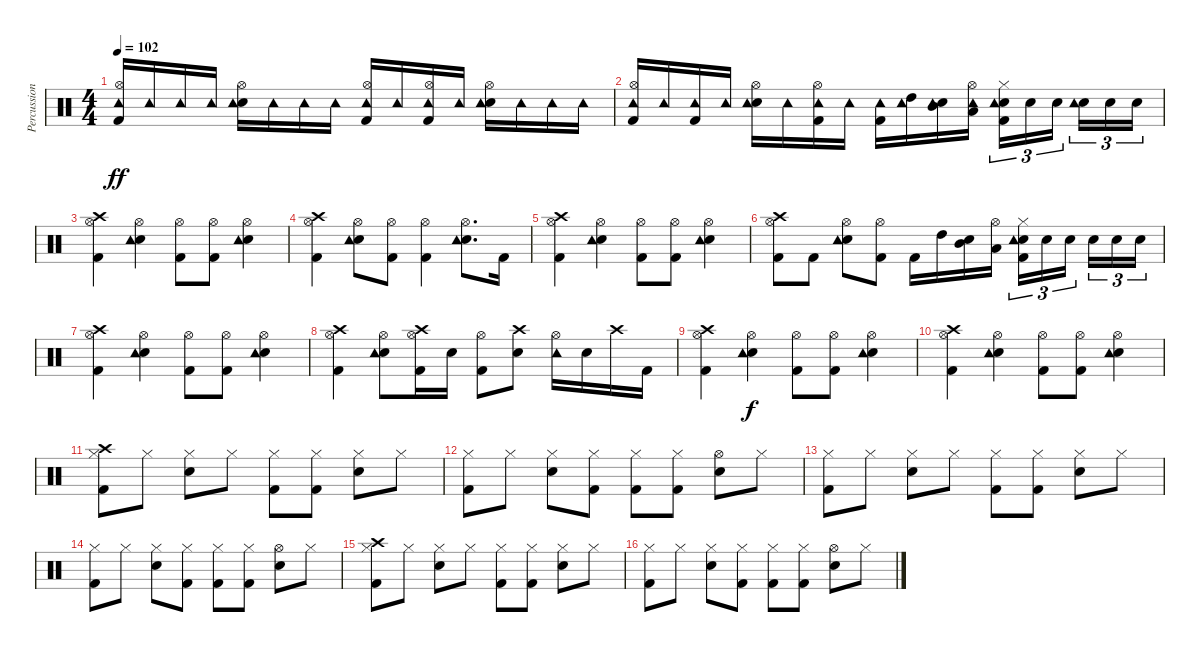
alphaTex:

\track ("Percussions" "Percussion") {instrument percussion}
\staff {score}
\articulation defaults
\ts (4 4)
\tempo 102
\clef neutral
\ks c
("Kick (hit) 2" "Hi-Hat (open)" "Tambourine (hit)").16{dy ff} "Tambourine (hit)".16 "Tambourine (hit)".16 "Tambourine (hit)".16 ("Snare (hit) 2" "Hi-Hat (open)" "Tambourine (hit)").16 "Tambourine (hit)".16 "Tambourine (hit)".16 "Tambourine (hit)".16 ("Kick (hit) 2" "Hi-Hat (open)" "Tambourine (hit)").16 "Tambourine (hit)".16 ("Kick (hit) 2" "Hi-Hat (open)" "Tambourine (hit)").16 "Tambourine (hit)".16 ("Snare (hit) 2" "Hi-Hat (open)" "Tambourine (hit)").16 "Tambourine (hit)".16 "Tambourine (hit)".16 "Tambourine (hit)".16 |
("Kick (hit) 2" "Hi-Hat (open)" "Tambourine (hit)").16 "Tambourine (hit)".16 ("Kick (hit) 2" "Tambourine (hit)").16 "Tambourine (hit)".16 ("Snare (hit) 2" "Hi-Hat (open)" "Tambourine (hit)").16 "Tambourine (hit)".16 ("Kick (hit) 2" "Hi-Hat (open)" "Tambourine (hit)").16 "Tambourine (hit)".16 ("Kick (hit) 2" "Tambourine (hit)").16 ("High Tom (hit)" "Tambourine (hit)").16 ("Snare (hit) 2" "Mid Tom (hit)" "Tambourine (hit)").16 ("Low Tom (hit)" "Hi-Hat (open)" "Tambourine (hit)").16 ("Kick (hit) 2" "Snare (hit) 2" "Hi-Hat (closed)" "Tambourine (hit)").16{tu (3 2)} "Snare (hit) 2".16{tu (3 2)} "Snare (hit) 2".16{tu (3 2) beam splitsecondary} ("Snare (hit) 2" "Tambourine (hit)").16{tu (3 2)} "Snare (hit) 2".16{tu (3 2)} "Snare (hit) 2".16{tu (3 2)} |
("Kick (hit) 2" "Hi-Hat (open)" "Crash high (hit)").4 ("Snare (hit) 2" "Hi-Hat (open)" "Tambourine (hit)").4 ("Kick (hit) 2" "Hi-Hat (open)").8 ("Kick (hit) 2" "Hi-Hat (open)").8 ("Snare (hit) 2" "Hi-Hat (open)" "Tambourine (hit)").4 |
("Kick (hit) 2" "Hi-Hat (open)" "Crash high (hit)").4 ("Snare (hit) 2" "Hi-Hat (open)" "Tambourine (hit)").8 ("Kick (hit) 2" "Hi-Hat (open)").8 ("Kick (hit) 2" "Hi-Hat (open)").4 ("Snare (hit) 2" "Hi-Hat (open)" "Tambourine (hit)").8{d} "Kick (hit) 2".16 |
("Kick (hit) 2" "Hi-Hat (open)" "Crash high (hit)").4 ("Snare (hit) 2" "Hi-Hat (open)" "Tambourine (hit)").4 ("Kick (hit) 2" "Hi-Hat (open)").8 ("Kick (hit) 2" "Hi-Hat (open)").8 ("Snare (hit) 2" "Hi-Hat (open)" "Tambourine (hit)").4 |
("Kick (hit) 2" "Hi-Hat (open)" "Crash high (hit)").8 "Kick (hit) 2".8 ("Snare (hit) 2" "Hi-Hat (open)" "Tambourine (hit)").8 ("Kick (hit) 2" "Hi-Hat (open)").8 "Kick (hit) 2".16 "High Tom (hit)".16 ("Snare (hit) 2" "Mid Tom (hit)").16 ("Low Tom (hit)" "Hi-Hat (open)").16 ("Kick (hit) 2" "Snare (hit) 2" "Hi-Hat (closed)" "Tambourine (hit)").16{tu (3 2)} "Snare (hit) 2".16{tu (3 2)} "Snare (hit) 2".16{tu (3 2) beam splitsecondary} "Snare (hit) 2".16{tu (3 2)} "Snare (hit) 2".16{tu (3 2)} "Snare (hit) 2".16{tu (3 2)} |
("Kick (hit) 2" "Hi-Hat (open)" "Crash high (hit)").4 ("Snare (hit) 2" "Hi-Hat (open)" "Tambourine (hit)").4 ("Kick (hit) 2" "Hi-Hat (open)").8 ("Kick (hit) 2" "Hi-Hat (open)").8 ("Snare (hit) 2" "Hi-Hat (open)" "Tambourine (hit)").4 |
("Kick (hit) 2" "Hi-Hat (open)" "Crash high (hit)").4 ("Snare (hit) 2" "Hi-Hat (open)" "Tambourine (hit)").8 ("Kick (hit) 2" "Hi-Hat (open)" "Crash high (hit)").16 "Snare (hit) 2".16 ("Kick (hit) 2" "Hi-Hat (open)").8 ("Snare (hit) 2" "Crash high (hit)").8 ("Hi-Hat (open)" "Tambourine (hit)").16 "Snare (hit) 2".16 "Crash high (hit)".16 "Kick (hit) 2".16 |
("Kick (hit) 2" "Hi-Hat (open)" "Crash high (hit)").4 ("Snare (hit) 2" "Hi-Hat (open)" "Tambourine (hit)").4{dy f} ("Kick (hit) 2" "Hi-Hat (open)").8 ("Kick (hit) 2" "Hi-Hat (open)").8 ("Snare (hit) 2" "Hi-Hat (open)" "Tambourine (hit)").4 |
("Kick (hit) 2" "Hi-Hat (open)" "Crash high (hit)").4 ("Snare (hit) 2" "Hi-Hat (open)" "Tambourine (hit)").4 ("Kick (hit) 2" "Hi-Hat (open)").8 ("Kick (hit) 2" "Hi-Hat (open)").8 ("Snare (hit) 2" "Hi-Hat (open)" "Tambourine (hit)").4 |
("Kick (hit) 2" "Hi-Hat (closed)" "Crash high (hit)").8 "Hi-Hat (closed)".8 ("Snare (hit) 2" "Hi-Hat (closed)").8 "Hi-Hat (closed)".8 ("Kick (hit) 2" "Hi-Hat (closed)").8 ("Kick (hit) 2" "Hi-Hat (closed)").8 ("Snare (hit) 2" "Hi-Hat (closed)").8 "Hi-Hat (closed)".8 |
("Kick (hit) 2" "Hi-Hat (closed)").8 "Hi-Hat (closed)".8 ("Snare (hit) 2" "Hi-Hat (closed)").8 ("Kick (hit) 2" "Hi-Hat (closed)").8 ("Kick (hit) 2" "Hi-Hat (closed)").8 ("Kick (hit) 2" "Hi-Hat (closed)").8 ("Snare (hit) 2" "Hi-Hat (open)").8 "Hi-Hat (closed)".8 |
("Kick (hit) 2" "Hi-Hat (closed)").8 "Hi-Hat (closed)".8 ("Snare (hit) 2" "Hi-Hat (closed)").8 "Hi-Hat (closed)".8 ("Kick (hit) 2" "Hi-Hat (closed)").8 ("Kick (hit) 2" "Hi-Hat (closed)").8 ("Snare (hit) 2" "Hi-Hat (closed)").8 "Hi-Hat (closed)".8 |
("Kick (hit) 2" "Hi-Hat (closed)").8 "Hi-Hat (closed)".8 ("Snare (hit) 2" "Hi-Hat (closed)").8 ("Kick (hit) 2" "Hi-Hat (closed)").8 ("Kick (hit) 2" "Hi-Hat (closed)").8 ("Kick (hit) 2" "Hi-Hat (closed)").8 ("Snare (hit) 2" "Hi-Hat (open)").8 "Hi-Hat (closed)".8 |
("Kick (hit) 2" "Hi-Hat (closed)" "Crash high (hit)").8 "Hi-Hat (closed)".8 ("Snare (hit) 2" "Hi-Hat (closed)").8 "Hi-Hat (closed)".8 ("Kick (hit) 2" "Hi-Hat (closed)").8 ("Kick (hit) 2" "Hi-Hat (closed)").8 ("Snare (hit) 2" "Hi-Hat (closed)").8 "Hi-Hat (closed)".8 |
("Kick (hit) 2" "Hi-Hat (closed)").8 "Hi-Hat (closed)".8 ("Snare (hit) 2" "Hi-Hat (closed)").8 ("Kick (hit) 2" "Hi-Hat (closed)").8 ("Kick (hit) 2" "Hi-Hat (closed)").8 ("Kick (hit) 2" "Hi-Hat (closed)").8 ("Snare (hit) 2" "Hi-Hat (open)").8 "Hi-Hat (closed)".8
